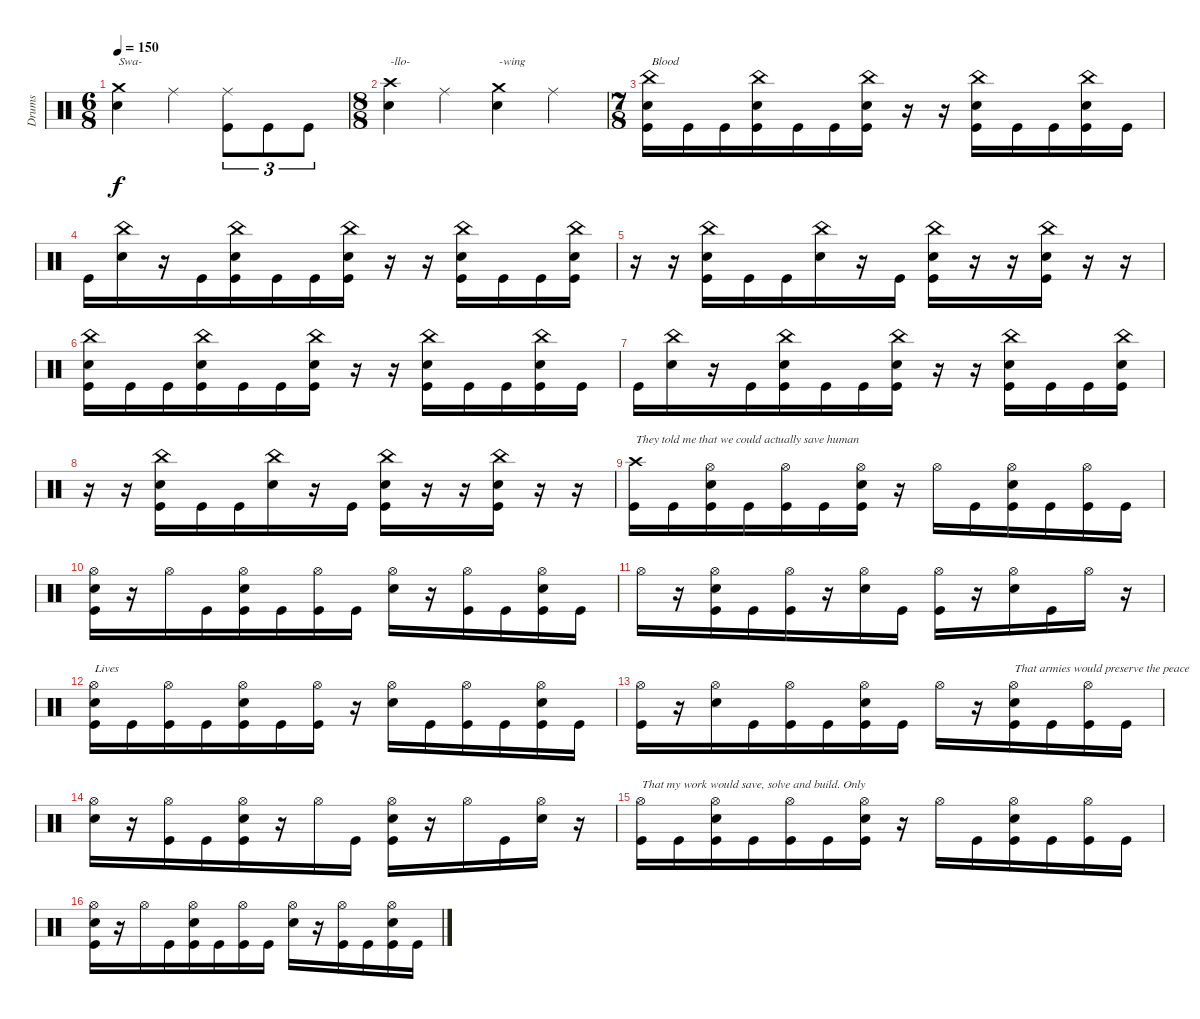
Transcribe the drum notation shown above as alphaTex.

\track ("Drums" "Drums") {instrument percussion}
\staff {score}
\articulation defaults
\ts (6 8)
\tempo 150
\clef neutral
\ks c
("Crash medium (hit)" "Snare (hit) 2").4{txt "Swa-" dy f} "Ride (middle)".4 ("Ride (middle)" "Kick (hit)").8{tu (3 2)} "Kick (hit)".8{tu (3 2)} "Kick (hit)".8{tu (3 2)} |
\ts (8 8)
("Crash high (hit)" "Snare (hit) 2").4{txt "-llo-"} "Ride (middle)".4 ("Crash medium (hit)" "Snare (hit) 2").4{txt "-wing"} "Ride (middle)".4 |
\ts (7 8)
("China (hit)" "Snare (hit) 2" "Kick (hit)").16{txt "Blood"} "Kick (hit)".16 "Kick (hit)".16 ("China (hit)" "Snare (hit) 2" "Kick (hit)").16 "Kick (hit)".16 "Kick (hit)".16 ("China (hit)" "Snare (hit) 2" "Kick (hit)").16 r.16 r.16 ("China (hit)" "Snare (hit) 2" "Kick (hit)").16 "Kick (hit)".16 "Kick (hit)".16 ("China (hit)" "Snare (hit) 2" "Kick (hit)").16 "Kick (hit)".16 |
"Kick (hit)".16 ("China (hit)" "Snare (hit) 2").16 r.16 "Kick (hit)".16 ("China (hit)" "Snare (hit) 2" "Kick (hit)").16 "Kick (hit)".16 "Kick (hit)".16 ("China (hit)" "Snare (hit) 2" "Kick (hit)").16 r.16 r.16 ("China (hit)" "Snare (hit) 2" "Kick (hit)").16 "Kick (hit)".16 "Kick (hit)".16 ("China (hit)" "Snare (hit) 2" "Kick (hit)").16 |
r.16 r.16 ("China (hit)" "Snare (hit) 2" "Kick (hit)").16 "Kick (hit)".16 "Kick (hit)".16 ("China (hit)" "Snare (hit) 2").16 r.16 "Kick (hit)".16 ("China (hit)" "Snare (hit) 2" "Kick (hit)").16 r.16 r.16 ("China (hit)" "Snare (hit) 2" "Kick (hit)").16 r.16 r.16 |
("China (hit)" "Snare (hit) 2" "Kick (hit)").16 "Kick (hit)".16 "Kick (hit)".16 ("China (hit)" "Snare (hit) 2" "Kick (hit)").16 "Kick (hit)".16 "Kick (hit)".16 ("China (hit)" "Snare (hit) 2" "Kick (hit)").16 r.16 r.16 ("China (hit)" "Snare (hit) 2" "Kick (hit)").16 "Kick (hit)".16 "Kick (hit)".16 ("China (hit)" "Snare (hit) 2" "Kick (hit)").16 "Kick (hit)".16 |
"Kick (hit)".16 ("China (hit)" "Snare (hit) 2").16 r.16 "Kick (hit)".16 ("China (hit)" "Snare (hit) 2" "Kick (hit)").16 "Kick (hit)".16 "Kick (hit)".16 ("China (hit)" "Snare (hit) 2" "Kick (hit)").16 r.16 r.16 ("China (hit)" "Snare (hit) 2" "Kick (hit)").16 "Kick (hit)".16 "Kick (hit)".16 ("China (hit)" "Snare (hit) 2" "Kick (hit)").16 |
r.16 r.16 ("China (hit)" "Snare (hit) 2" "Kick (hit)").16 "Kick (hit)".16 "Kick (hit)".16 ("China (hit)" "Snare (hit) 2").16 r.16 "Kick (hit)".16 ("China (hit)" "Snare (hit) 2" "Kick (hit)").16 r.16 r.16 ("China (hit)" "Snare (hit) 2" "Kick (hit)").16 r.16 r.16 |
("Crash high (hit)" "Kick (hit)").16{txt "They told me that we could actually save human"} "Kick (hit)".16 ("Hi-Hat (open)" "Snare (hit) 2" "Kick (hit)").16 "Kick (hit)".16 ("Hi-Hat (open)" "Kick (hit)").16 "Kick (hit)".16 ("Hi-Hat (open)" "Snare (hit) 2" "Kick (hit)").16 r.16 "Hi-Hat (open)".16 "Kick (hit)".16 ("Hi-Hat (open)" "Snare (hit) 2" "Kick (hit)").16 "Kick (hit)".16 ("Hi-Hat (open)" "Kick (hit)").16 "Kick (hit)".16 |
("Hi-Hat (open)" "Snare (hit) 2" "Kick (hit)").16 r.16 "Hi-Hat (open)".16 "Kick (hit)".16 ("Hi-Hat (open)" "Snare (hit) 2" "Kick (hit)").16 "Kick (hit)".16 ("Hi-Hat (open)" "Kick (hit)").16 "Kick (hit)".16 ("Hi-Hat (open)" "Snare (hit) 2").16 r.16 ("Hi-Hat (open)" "Kick (hit)").16 "Kick (hit)".16 ("Hi-Hat (open)" "Snare (hit) 2" "Kick (hit)").16 "Kick (hit)".16 |
"Hi-Hat (open)".16 r.16 ("Hi-Hat (open)" "Snare (hit) 2" "Kick (hit)").16 "Kick (hit)".16 ("Hi-Hat (open)" "Kick (hit)").16 r.16 ("Hi-Hat (open)" "Snare (hit) 2").16 "Kick (hit)".16 ("Hi-Hat (open)" "Kick (hit)").16 r.16 ("Hi-Hat (open)" "Snare (hit) 2").16 "Kick (hit)".16 "Hi-Hat (open)".16 r.16 |
("Hi-Hat (open)" "Snare (hit) 2" "Kick (hit)").16{txt "Lives"} "Kick (hit)".16 ("Hi-Hat (open)" "Kick (hit)").16 "Kick (hit)".16 ("Hi-Hat (open)" "Snare (hit) 2" "Kick (hit)").16 "Kick (hit)".16 ("Hi-Hat (open)" "Kick (hit)").16 r.16 ("Hi-Hat (open)" "Snare (hit) 2").16 "Kick (hit)".16 ("Hi-Hat (open)" "Kick (hit)").16 "Kick (hit)".16 ("Hi-Hat (open)" "Snare (hit) 2" "Kick (hit)").16 "Kick (hit)".16 |
("Hi-Hat (open)" "Kick (hit)").16 r.16 ("Hi-Hat (open)" "Snare (hit) 2").16 "Kick (hit)".16 ("Hi-Hat (open)" "Kick (hit)").16 "Kick (hit)".16 ("Hi-Hat (open)" "Snare (hit) 2" "Kick (hit)").16 "Kick (hit)".16 "Hi-Hat (open)".16 r.16 ("Hi-Hat (open)" "Snare (hit) 2" "Kick (hit)").16{txt "That armies would preserve the peace"} "Kick (hit)".16 ("Hi-Hat (open)" "Kick (hit)").16 "Kick (hit)".16 |
("Hi-Hat (open)" "Snare (hit) 2").16 r.16 ("Hi-Hat (open)" "Kick (hit)").16 "Kick (hit)".16 ("Hi-Hat (open)" "Snare (hit) 2" "Kick (hit)").16 r.16 "Hi-Hat (open)".16 "Kick (hit)".16 ("Hi-Hat (open)" "Snare (hit) 2" "Kick (hit)").16 r.16 "Hi-Hat (open)".16 "Kick (hit)".16 ("Hi-Hat (open)" "Snare (hit) 2").16 r.16 |
("Hi-Hat (open)" "Kick (hit)").16{txt "That my work would save, solve and build. Only"} "Kick (hit)".16 ("Hi-Hat (open)" "Snare (hit) 2" "Kick (hit)").16 "Kick (hit)".16 ("Hi-Hat (open)" "Kick (hit)").16 "Kick (hit)".16 ("Hi-Hat (open)" "Snare (hit) 2" "Kick (hit)").16 r.16 "Hi-Hat (open)".16 "Kick (hit)".16 ("Hi-Hat (open)" "Snare (hit) 2" "Kick (hit)").16 "Kick (hit)".16 ("Hi-Hat (open)" "Kick (hit)").16 "Kick (hit)".16 |
("Hi-Hat (open)" "Snare (hit) 2" "Kick (hit)").16 r.16 "Hi-Hat (open)".16 "Kick (hit)".16 ("Hi-Hat (open)" "Snare (hit) 2" "Kick (hit)").16 "Kick (hit)".16 ("Hi-Hat (open)" "Kick (hit)").16 "Kick (hit)".16 ("Hi-Hat (open)" "Snare (hit) 2").16 r.16 ("Hi-Hat (open)" "Kick (hit)").16 "Kick (hit)".16 ("Hi-Hat (open)" "Snare (hit) 2" "Kick (hit)").16 "Kick (hit)".16
